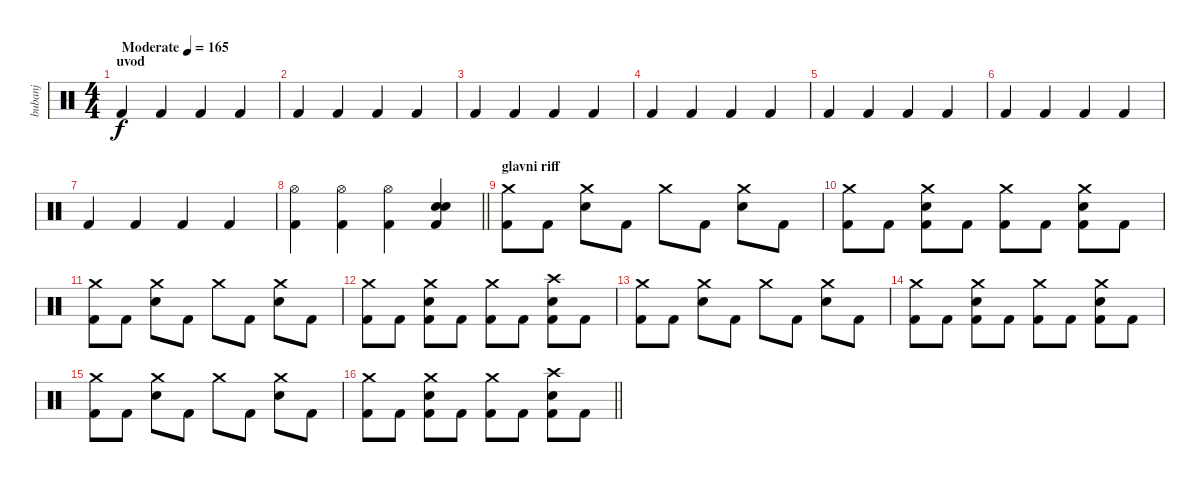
\track ("bubanj" "bubanj") {instrument percussion}
\staff {score}
\articulation defaults
\ts (4 4)
\section ("" "uvod")
\tempo (165 "Moderate")
\clef neutral
\ks c "Kick (hit) 2".4{dy f} "Kick (hit) 2".4 "Kick (hit) 2".4 "Kick (hit) 2".4
|
"Kick (hit) 2".4 "Kick (hit) 2".4 "Kick (hit) 2".4 "Kick (hit) 2".4 |
"Kick (hit) 2".4 "Kick (hit) 2".4 "Kick (hit) 2".4 "Kick (hit) 2".4 |
"Kick (hit) 2".4 "Kick (hit) 2".4 "Kick (hit) 2".4 "Kick (hit) 2".4 |
"Kick (hit) 2".4 "Kick (hit) 2".4 "Kick (hit) 2".4 "Kick (hit) 2".4 |
"Kick (hit) 2".4 "Kick (hit) 2".4 "Kick (hit) 2".4 "Kick (hit) 2".4 |
"Kick (hit) 2".4 "Kick (hit) 2".4 "Kick (hit) 2".4 "Kick (hit) 2".4 |
\barLineRight lightlight
("Hi-Hat (open)" "Kick (hit) 2").4 ("Hi-Hat (open)" "Kick (hit) 2").4 ("Hi-Hat (open)" "Kick (hit) 2").4 ("Snare (hit) 2" "Electric Snare (hit)" "Kick (hit) 2").4 |
\section ("" "glavni riff")
("Crash medium (hit)" "Kick (hit) 2").8 "Kick (hit) 2".8 ("Crash medium (hit)" "Electric Snare (hit)").8 "Kick (hit) 2".8 "Crash medium (hit)".8 "Kick (hit) 2".8 ("Crash medium (hit)" "Electric Snare (hit)").8 "Kick (hit) 2".8 |
("Crash medium (hit)" "Kick (hit) 2").8 "Kick (hit) 2".8 ("Crash medium (hit)" "Electric Snare (hit)" "Kick (hit) 2").8 "Kick (hit) 2".8 ("Crash medium (hit)" "Kick (hit) 2").8 "Kick (hit) 2".8 ("Crash medium (hit)" "Electric Snare (hit)" "Kick (hit) 2").8 "Kick (hit) 2".8 |
("Crash medium (hit)" "Kick (hit) 2").8 "Kick (hit) 2".8 ("Crash medium (hit)" "Electric Snare (hit)").8 "Kick (hit) 2".8 "Crash medium (hit)".8 "Kick (hit) 2".8 ("Crash medium (hit)" "Electric Snare (hit)").8 "Kick (hit) 2".8 |
("Crash medium (hit)" "Kick (hit) 2").8 "Kick (hit) 2".8 ("Crash medium (hit)" "Electric Snare (hit)" "Kick (hit) 2").8 "Kick (hit) 2".8 ("Crash medium (hit)" "Kick (hit) 2").8 "Kick (hit) 2".8 ("Crash high (hit)" "Electric Snare (hit)" "Kick (hit) 2").8 "Kick (hit) 2".8 |
("Crash medium (hit)" "Kick (hit) 2").8 "Kick (hit) 2".8 ("Crash medium (hit)" "Electric Snare (hit)").8 "Kick (hit) 2".8 "Crash medium (hit)".8 "Kick (hit) 2".8 ("Crash medium (hit)" "Electric Snare (hit)").8 "Kick (hit) 2".8 |
("Crash medium (hit)" "Kick (hit) 2").8 "Kick (hit) 2".8 ("Crash medium (hit)" "Electric Snare (hit)" "Kick (hit) 2").8 "Kick (hit) 2".8 ("Crash medium (hit)" "Kick (hit) 2").8 "Kick (hit) 2".8 ("Crash medium (hit)" "Electric Snare (hit)" "Kick (hit) 2").8 "Kick (hit) 2".8 |
("Crash medium (hit)" "Kick (hit) 2").8 "Kick (hit) 2".8 ("Crash medium (hit)" "Electric Snare (hit)").8 "Kick (hit) 2".8 "Crash medium (hit)".8 "Kick (hit) 2".8 ("Crash medium (hit)" "Electric Snare (hit)").8 "Kick (hit) 2".8 |
\barLineRight lightlight
("Crash medium (hit)" "Kick (hit) 2").8 "Kick (hit) 2".8 ("Crash medium (hit)" "Electric Snare (hit)" "Kick (hit) 2").8 "Kick (hit) 2".8 ("Crash medium (hit)" "Kick (hit) 2").8 "Kick (hit) 2".8 ("Crash high (hit)" "Electric Snare (hit)" "Kick (hit) 2").8 "Kick (hit) 2".8
